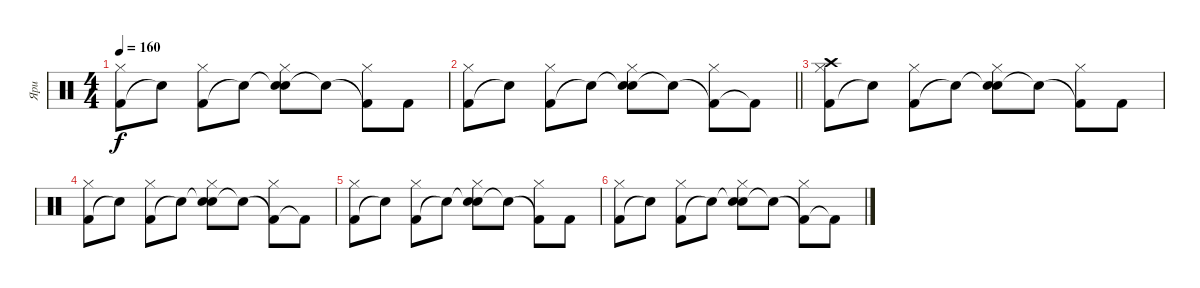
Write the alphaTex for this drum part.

\track ("Яри" "Яри") {instrument percussion}
\staff {score}
\articulation defaults
\ts (4 4)
\tempo 160
\clef neutral
\ks c
("Kick (hit) 2" "Hi-Hat (closed)").8{dy f} "Snare (hit)"{t}.8 ("Kick (hit) 2" "Hi-Hat (closed)").8 "Snare (hit)"{t}.8 ("Snare (hit)"{t} "Hi-Hat (closed)" "Snare (hit) 2").8 "Snare (hit)"{t}.8 ("Kick (hit) 2"{t} "Hi-Hat (closed)").8 "Kick (hit) 2".8 |
\barLineRight lightlight
("Kick (hit) 2" "Hi-Hat (closed)").8 "Snare (hit)"{t}.8 ("Kick (hit) 2" "Hi-Hat (closed)").8 "Snare (hit)"{t}.8 ("Snare (hit)"{t} "Hi-Hat (closed)" "Snare (hit) 2").8 "Snare (hit)"{t}.8 ("Kick (hit) 2"{t} "Hi-Hat (closed)").8 "Kick (hit) 2"{t}.8 |
("Kick (hit) 2" "Hi-Hat (closed)" "Crash high (hit)").8 "Snare (hit)"{t}.8 ("Kick (hit) 2" "Hi-Hat (closed)").8 "Snare (hit)"{t}.8 ("Snare (hit)"{t} "Hi-Hat (closed)" "Snare (hit) 2").8 "Snare (hit)"{t}.8 ("Kick (hit) 2"{t} "Hi-Hat (closed)").8 "Kick (hit) 2".8 |
("Kick (hit) 2" "Hi-Hat (closed)").8 "Snare (hit)"{t}.8 ("Kick (hit) 2" "Hi-Hat (closed)").8 "Snare (hit)"{t}.8 ("Snare (hit)"{t} "Hi-Hat (closed)" "Snare (hit) 2").8 "Snare (hit)"{t}.8 ("Kick (hit) 2"{t} "Hi-Hat (closed)").8 "Kick (hit) 2"{t}.8 |
("Kick (hit) 2" "Hi-Hat (closed)").8 "Snare (hit)"{t}.8 ("Kick (hit) 2" "Hi-Hat (closed)").8 "Snare (hit)"{t}.8 ("Snare (hit)"{t} "Hi-Hat (closed)" "Snare (hit) 2").8 "Snare (hit)"{t}.8 ("Kick (hit) 2"{t} "Hi-Hat (closed)").8 "Kick (hit) 2".8 |
("Kick (hit) 2" "Hi-Hat (closed)").8 "Snare (hit)"{t}.8 ("Kick (hit) 2" "Hi-Hat (closed)").8 "Snare (hit)"{t}.8 ("Snare (hit)"{t} "Hi-Hat (closed)" "Snare (hit) 2").8 "Snare (hit)"{t}.8 ("Kick (hit) 2"{t} "Hi-Hat (closed)").8 "Kick (hit) 2"{t}.8
